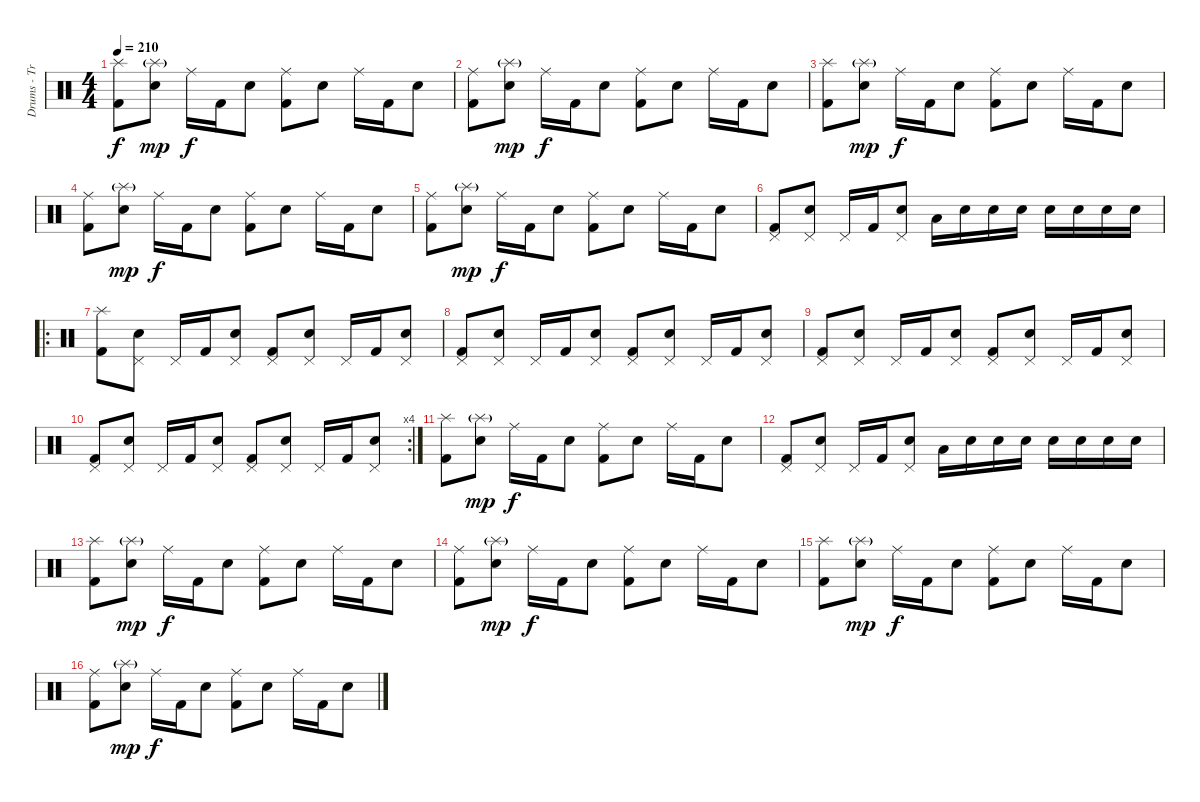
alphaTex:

\track ("Drums - Travis Barker" "Drums - Tr") {instrument percussion}
\staff {score}
\articulation defaults
\ts (4 4)
\tempo 210
\clef neutral
\ks c
("Splash (hit)" "Kick (hit) 2").8{dy f} ("Splash (hit)"{g} "Electric Snare (hit)").8{dy mp} "Ride (middle)".16{dy f} "Kick (hit) 2".16 "Electric Snare (hit)".8 ("Ride (middle)" "Kick (hit) 2").8 "Electric Snare (hit)".8 "Ride (middle)".16 "Kick (hit) 2".16 "Electric Snare (hit)".8 |
("Ride (middle)" "Kick (hit) 2").8 ("Splash (hit)"{g} "Electric Snare (hit)").8{dy mp} "Ride (middle)".16{dy f} "Kick (hit) 2".16 "Electric Snare (hit)".8 ("Ride (middle)" "Kick (hit) 2").8 "Electric Snare (hit)".8 "Ride (middle)".16 "Kick (hit) 2".16 "Electric Snare (hit)".8 |
("Splash (hit)" "Kick (hit) 2").8 ("Splash (hit)"{g} "Electric Snare (hit)").8{dy mp} "Ride (middle)".16{dy f} "Kick (hit) 2".16 "Electric Snare (hit)".8 ("Ride (middle)" "Kick (hit) 2").8 "Electric Snare (hit)".8 "Ride (middle)".16 "Kick (hit) 2".16 "Electric Snare (hit)".8 |
("Ride (middle)" "Kick (hit) 2").8 ("Splash (hit)"{g} "Electric Snare (hit)").8{dy mp} "Ride (middle)".16{dy f} "Kick (hit) 2".16 "Electric Snare (hit)".8 ("Ride (middle)" "Kick (hit) 2").8 "Electric Snare (hit)".8 "Ride (middle)".16 "Kick (hit) 2".16 "Electric Snare (hit)".8 |
("Ride (middle)" "Kick (hit) 2").8 ("Splash (hit)"{g} "Electric Snare (hit)").8{dy mp} "Ride (middle)".16{dy f} "Kick (hit) 2".16 "Electric Snare (hit)".8 ("Ride (middle)" "Kick (hit) 2").8 "Electric Snare (hit)".8 "Ride (middle)".16 "Kick (hit) 2".16 "Electric Snare (hit)".8 |
("Pedal Hi-Hat (hit)" "Kick (hit) 2").8 ("Pedal Hi-Hat (hit)" "Electric Snare (hit)").8 "Pedal Hi-Hat (hit)".16 "Kick (hit) 2".16 ("Pedal Hi-Hat (hit)" "Electric Snare (hit)").8 "Low Tom (hit)".16 "Electric Snare (hit)".16 "Electric Snare (hit)".16 "Electric Snare (hit)".16 "Electric Snare (hit)".16 "Electric Snare (hit)".16 "Electric Snare (hit)".16 "Electric Snare (hit)".16 |
\ro
("Splash (hit)" "Kick (hit) 2").8 ("Pedal Hi-Hat (hit)" "Electric Snare (hit)").8 "Pedal Hi-Hat (hit)".16 "Kick (hit) 2".16 ("Pedal Hi-Hat (hit)" "Electric Snare (hit)").8 ("Pedal Hi-Hat (hit)" "Kick (hit) 2").8 ("Pedal Hi-Hat (hit)" "Electric Snare (hit)").8 "Pedal Hi-Hat (hit)".16 "Kick (hit) 2".16 ("Pedal Hi-Hat (hit)" "Electric Snare (hit)").8 |
("Pedal Hi-Hat (hit)" "Kick (hit) 2").8 ("Pedal Hi-Hat (hit)" "Electric Snare (hit)").8 "Pedal Hi-Hat (hit)".16 "Kick (hit) 2".16 ("Pedal Hi-Hat (hit)" "Electric Snare (hit)").8 ("Pedal Hi-Hat (hit)" "Kick (hit) 2").8 ("Pedal Hi-Hat (hit)" "Electric Snare (hit)").8 "Pedal Hi-Hat (hit)".16 "Kick (hit) 2".16 ("Pedal Hi-Hat (hit)" "Electric Snare (hit)").8 |
("Pedal Hi-Hat (hit)" "Kick (hit) 2").8 ("Pedal Hi-Hat (hit)" "Electric Snare (hit)").8 "Pedal Hi-Hat (hit)".16 "Kick (hit) 2".16 ("Pedal Hi-Hat (hit)" "Electric Snare (hit)").8 ("Pedal Hi-Hat (hit)" "Kick (hit) 2").8 ("Pedal Hi-Hat (hit)" "Electric Snare (hit)").8 "Pedal Hi-Hat (hit)".16 "Kick (hit) 2".16 ("Pedal Hi-Hat (hit)" "Electric Snare (hit)").8 |
\rc 4
("Pedal Hi-Hat (hit)" "Kick (hit) 2").8 ("Pedal Hi-Hat (hit)" "Electric Snare (hit)").8 "Pedal Hi-Hat (hit)".16 "Kick (hit) 2".16 ("Pedal Hi-Hat (hit)" "Electric Snare (hit)").8 ("Pedal Hi-Hat (hit)" "Kick (hit) 2").8 ("Pedal Hi-Hat (hit)" "Electric Snare (hit)").8 "Pedal Hi-Hat (hit)".16 "Kick (hit) 2".16 ("Pedal Hi-Hat (hit)" "Electric Snare (hit)").8 |
("Splash (hit)" "Kick (hit) 2").8 ("Splash (hit)"{g} "Electric Snare (hit)").8{dy mp} "Ride (middle)".16{dy f} "Kick (hit) 2".16 "Electric Snare (hit)".8 ("Ride (middle)" "Kick (hit) 2").8 "Electric Snare (hit)".8 "Ride (middle)".16 "Kick (hit) 2".16 "Electric Snare (hit)".8 |
("Pedal Hi-Hat (hit)" "Kick (hit) 2").8 ("Pedal Hi-Hat (hit)" "Electric Snare (hit)").8 "Pedal Hi-Hat (hit)".16 "Kick (hit) 2".16 ("Pedal Hi-Hat (hit)" "Electric Snare (hit)").8 "Low Tom (hit)".16 "Electric Snare (hit)".16 "Electric Snare (hit)".16 "Electric Snare (hit)".16 "Electric Snare (hit)".16 "Electric Snare (hit)".16 "Electric Snare (hit)".16 "Electric Snare (hit)".16 |
("Splash (hit)" "Kick (hit) 2").8 ("Splash (hit)"{g} "Electric Snare (hit)").8{dy mp} "Ride (middle)".16{dy f} "Kick (hit) 2".16 "Electric Snare (hit)".8 ("Ride (middle)" "Kick (hit) 2").8 "Electric Snare (hit)".8 "Ride (middle)".16 "Kick (hit) 2".16 "Electric Snare (hit)".8 |
("Ride (middle)" "Kick (hit) 2").8 ("Splash (hit)"{g} "Electric Snare (hit)").8{dy mp} "Ride (middle)".16{dy f} "Kick (hit) 2".16 "Electric Snare (hit)".8 ("Ride (middle)" "Kick (hit) 2").8 "Electric Snare (hit)".8 "Ride (middle)".16 "Kick (hit) 2".16 "Electric Snare (hit)".8 |
("Splash (hit)" "Kick (hit) 2").8 ("Splash (hit)"{g} "Electric Snare (hit)").8{dy mp} "Ride (middle)".16{dy f} "Kick (hit) 2".16 "Electric Snare (hit)".8 ("Ride (middle)" "Kick (hit) 2").8 "Electric Snare (hit)".8 "Ride (middle)".16 "Kick (hit) 2".16 "Electric Snare (hit)".8 |
("Ride (middle)" "Kick (hit) 2").8 ("Splash (hit)"{g} "Electric Snare (hit)").8{dy mp} "Ride (middle)".16{dy f} "Kick (hit) 2".16 "Electric Snare (hit)".8 ("Ride (middle)" "Kick (hit) 2").8 "Electric Snare (hit)".8 "Ride (middle)".16 "Kick (hit) 2".16 "Electric Snare (hit)".8
